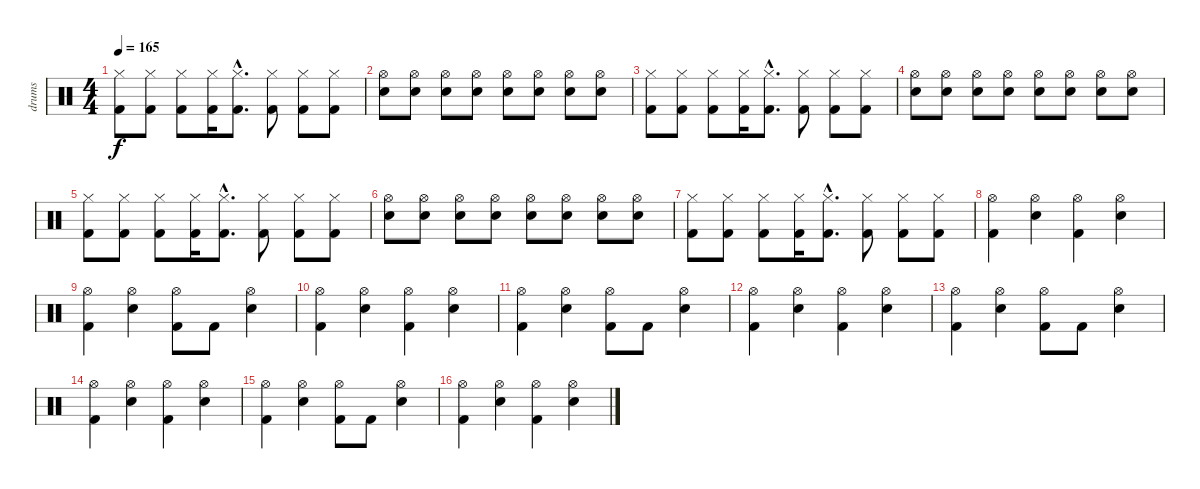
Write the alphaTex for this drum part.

\track ("drums" "drums") {instrument percussion}
\staff {score}
\articulation defaults
\ts (4 4)
\tempo 165
\clef neutral
\ks c
("Hi-Hat (closed)" "Kick (hit) 2").8{dy f} ("Hi-Hat (closed)" "Kick (hit) 2").8 ("Hi-Hat (closed)" "Kick (hit) 2").8 ("Hi-Hat (closed)" "Kick (hit) 2").16 ("Hi-Hat (closed)"{hac} "Kick (hit) 2"{hac}).8{d} ("Hi-Hat (closed)" "Kick (hit) 2").8 ("Hi-Hat (closed)" "Kick (hit) 2").8 ("Hi-Hat (closed)" "Kick (hit) 2").8 |
("Hi-Hat (open)" "Electric Snare (hit)").8 ("Hi-Hat (open)" "Electric Snare (hit)").8 ("Hi-Hat (open)" "Electric Snare (hit)").8 ("Hi-Hat (open)" "Electric Snare (hit)").8 ("Hi-Hat (open)" "Electric Snare (hit)").8 ("Hi-Hat (open)" "Electric Snare (hit)").8 ("Hi-Hat (open)" "Electric Snare (hit)").8 ("Hi-Hat (open)" "Electric Snare (hit)").8 |
("Hi-Hat (closed)" "Kick (hit) 2").8 ("Hi-Hat (closed)" "Kick (hit) 2").8 ("Hi-Hat (closed)" "Kick (hit) 2").8 ("Hi-Hat (closed)" "Kick (hit) 2").16 ("Hi-Hat (closed)"{hac} "Kick (hit) 2"{hac}).8{d} ("Hi-Hat (closed)" "Kick (hit) 2").8 ("Hi-Hat (closed)" "Kick (hit) 2").8 ("Hi-Hat (closed)" "Kick (hit) 2").8 |
("Hi-Hat (open)" "Electric Snare (hit)").8 ("Hi-Hat (open)" "Electric Snare (hit)").8 ("Hi-Hat (open)" "Electric Snare (hit)").8 ("Hi-Hat (open)" "Electric Snare (hit)").8 ("Hi-Hat (open)" "Electric Snare (hit)").8 ("Hi-Hat (open)" "Electric Snare (hit)").8 ("Hi-Hat (open)" "Electric Snare (hit)").8 ("Hi-Hat (open)" "Electric Snare (hit)").8 |
("Hi-Hat (closed)" "Kick (hit) 2").8 ("Hi-Hat (closed)" "Kick (hit) 2").8 ("Hi-Hat (closed)" "Kick (hit) 2").8 ("Hi-Hat (closed)" "Kick (hit) 2").16 ("Hi-Hat (closed)"{hac} "Kick (hit) 2"{hac}).8{d} ("Hi-Hat (closed)" "Kick (hit) 2").8 ("Hi-Hat (closed)" "Kick (hit) 2").8 ("Hi-Hat (closed)" "Kick (hit) 2").8 |
("Hi-Hat (open)" "Electric Snare (hit)").8 ("Hi-Hat (open)" "Electric Snare (hit)").8 ("Hi-Hat (open)" "Electric Snare (hit)").8 ("Hi-Hat (open)" "Electric Snare (hit)").8 ("Hi-Hat (open)" "Electric Snare (hit)").8 ("Hi-Hat (open)" "Electric Snare (hit)").8 ("Hi-Hat (open)" "Electric Snare (hit)").8 ("Hi-Hat (open)" "Electric Snare (hit)").8 |
("Hi-Hat (closed)" "Kick (hit) 2").8 ("Hi-Hat (closed)" "Kick (hit) 2").8 ("Hi-Hat (closed)" "Kick (hit) 2").8 ("Hi-Hat (closed)" "Kick (hit) 2").16 ("Hi-Hat (closed)"{hac} "Kick (hit) 2"{hac}).8{d} ("Hi-Hat (closed)" "Kick (hit) 2").8 ("Hi-Hat (closed)" "Kick (hit) 2").8 ("Hi-Hat (closed)" "Kick (hit) 2").8 |
("Hi-Hat (open)" "Kick (hit) 2").4 ("Hi-Hat (open)" "Electric Snare (hit)").4 ("Hi-Hat (open)" "Kick (hit) 2").4 ("Hi-Hat (open)" "Electric Snare (hit)").4 |
("Hi-Hat (open)" "Kick (hit) 2").4 ("Hi-Hat (open)" "Electric Snare (hit)").4 ("Hi-Hat (open)" "Kick (hit) 2").8 "Kick (hit) 2".8 ("Hi-Hat (open)" "Electric Snare (hit)").4 |
("Hi-Hat (open)" "Kick (hit) 2").4 ("Hi-Hat (open)" "Electric Snare (hit)").4 ("Hi-Hat (open)" "Kick (hit) 2").4 ("Hi-Hat (open)" "Electric Snare (hit)").4 |
("Hi-Hat (open)" "Kick (hit) 2").4 ("Hi-Hat (open)" "Electric Snare (hit)").4 ("Hi-Hat (open)" "Kick (hit) 2").8 "Kick (hit) 2".8 ("Hi-Hat (open)" "Electric Snare (hit)").4 |
("Hi-Hat (open)" "Kick (hit) 2").4 ("Hi-Hat (open)" "Electric Snare (hit)").4 ("Hi-Hat (open)" "Kick (hit) 2").4 ("Hi-Hat (open)" "Electric Snare (hit)").4 |
("Hi-Hat (open)" "Kick (hit) 2").4 ("Hi-Hat (open)" "Electric Snare (hit)").4 ("Hi-Hat (open)" "Kick (hit) 2").8 "Kick (hit) 2".8 ("Hi-Hat (open)" "Electric Snare (hit)").4 |
("Hi-Hat (open)" "Kick (hit) 2").4 ("Hi-Hat (open)" "Electric Snare (hit)").4 ("Hi-Hat (open)" "Kick (hit) 2").4 ("Hi-Hat (open)" "Electric Snare (hit)").4 |
("Hi-Hat (open)" "Kick (hit) 2").4 ("Hi-Hat (open)" "Electric Snare (hit)").4 ("Hi-Hat (open)" "Kick (hit) 2").8 "Kick (hit) 2".8 ("Hi-Hat (open)" "Electric Snare (hit)").4 |
("Hi-Hat (open)" "Kick (hit) 2").4 ("Hi-Hat (open)" "Electric Snare (hit)").4 ("Hi-Hat (open)" "Kick (hit) 2").4 ("Hi-Hat (open)" "Electric Snare (hit)").4
